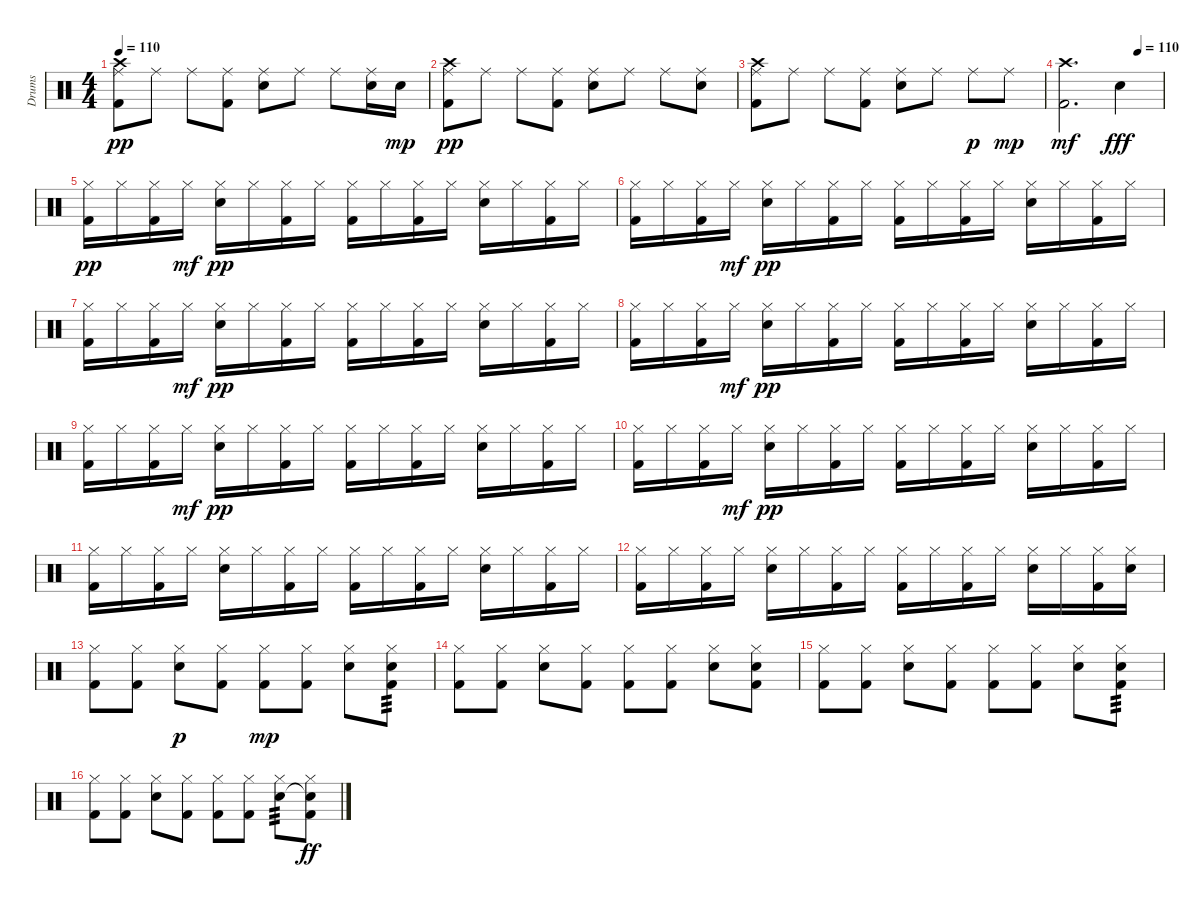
\track ("Drums" "Drums") {instrument percussion}
\staff {score}
\articulation defaults
\ts (4 4)
\tempo 110
\clef neutral
\ks c
("Kick (hit) 2" "Crash high (hit)" "Ride (middle)").8{dy pp} "Ride (middle)".8 "Ride (middle)".8 ("Kick (hit) 2" "Ride (middle)").8 ("Snare (hit) 2" "Ride (middle)").8 "Ride (middle)".8 "Ride (middle)".8 ("Snare (hit) 2" "Ride (middle)").16 "Snare (hit) 2".16{dy mp} |
("Kick (hit) 2" "Crash high (hit)" "Ride (middle)").8{dy pp} "Ride (middle)".8 "Ride (middle)".8 ("Kick (hit) 2" "Ride (middle)").8 ("Snare (hit) 2" "Ride (middle)").8 "Ride (middle)".8 "Ride (middle)".8 ("Snare (hit) 2" "Ride (middle)").8 |
("Kick (hit) 2" "Crash high (hit)" "Ride (middle)").8 "Ride (middle)".8 "Ride (middle)".8 ("Kick (hit) 2" "Ride (middle)").8 ("Snare (hit) 2" "Ride (middle)").8 "Ride (middle)".8 "Ride (middle)".8{dy p} "Ride (middle)".8{dy mp} |
\tempo (110 0.75)
("Kick (hit) 2" "Crash high (hit)").2{d dy mf} "Snare (hit) 2".4{dy fff} |
("Kick (hit) 2" "Hi-Hat (closed)").16{dy pp} "Hi-Hat (closed)".16 ("Kick (hit) 2" "Hi-Hat (closed)").16 "Hi-Hat (closed)".16{dy mf} ("Electric Snare (hit)" "Hi-Hat (closed)").16{dy pp} "Hi-Hat (closed)".16 ("Kick (hit) 2" "Hi-Hat (closed)").16 "Hi-Hat (closed)".16 ("Kick (hit) 2" "Hi-Hat (closed)").16 "Hi-Hat (closed)".16 ("Kick (hit) 2" "Hi-Hat (closed)").16 "Hi-Hat (closed)".16 ("Electric Snare (hit)" "Hi-Hat (closed)").16 "Hi-Hat (closed)".16 ("Kick (hit) 2" "Hi-Hat (closed)").16 "Hi-Hat (closed)".16 |
("Kick (hit) 2" "Hi-Hat (closed)").16 "Hi-Hat (closed)".16 ("Kick (hit) 2" "Hi-Hat (closed)").16 "Hi-Hat (closed)".16{dy mf} ("Electric Snare (hit)" "Hi-Hat (closed)").16{dy pp} "Hi-Hat (closed)".16 ("Kick (hit) 2" "Hi-Hat (closed)").16 "Hi-Hat (closed)".16 ("Kick (hit) 2" "Hi-Hat (closed)").16 "Hi-Hat (closed)".16 ("Kick (hit) 2" "Hi-Hat (closed)").16 "Hi-Hat (closed)".16 ("Electric Snare (hit)" "Hi-Hat (closed)").16 "Hi-Hat (closed)".16 ("Kick (hit) 2" "Hi-Hat (closed)").16 "Hi-Hat (closed)".16 |
("Kick (hit) 2" "Hi-Hat (closed)").16 "Hi-Hat (closed)".16 ("Kick (hit) 2" "Hi-Hat (closed)").16 "Hi-Hat (closed)".16{dy mf} ("Electric Snare (hit)" "Hi-Hat (closed)").16{dy pp} "Hi-Hat (closed)".16 ("Kick (hit) 2" "Hi-Hat (closed)").16 "Hi-Hat (closed)".16 ("Kick (hit) 2" "Hi-Hat (closed)").16 "Hi-Hat (closed)".16 ("Kick (hit) 2" "Hi-Hat (closed)").16 "Hi-Hat (closed)".16 ("Electric Snare (hit)" "Hi-Hat (closed)").16 "Hi-Hat (closed)".16 ("Kick (hit) 2" "Hi-Hat (closed)").16 "Hi-Hat (closed)".16 |
("Kick (hit) 2" "Hi-Hat (closed)").16 "Hi-Hat (closed)".16 ("Kick (hit) 2" "Hi-Hat (closed)").16 "Hi-Hat (closed)".16{dy mf} ("Electric Snare (hit)" "Hi-Hat (closed)").16{dy pp} "Hi-Hat (closed)".16 ("Kick (hit) 2" "Hi-Hat (closed)").16 "Hi-Hat (closed)".16 ("Kick (hit) 2" "Hi-Hat (closed)").16 "Hi-Hat (closed)".16 ("Kick (hit) 2" "Hi-Hat (closed)").16 "Hi-Hat (closed)".16 ("Electric Snare (hit)" "Hi-Hat (closed)").16 "Hi-Hat (closed)".16 ("Kick (hit) 2" "Hi-Hat (closed)").16 "Hi-Hat (closed)".16 |
("Kick (hit) 2" "Hi-Hat (closed)").16 "Hi-Hat (closed)".16 ("Kick (hit) 2" "Hi-Hat (closed)").16 "Hi-Hat (closed)".16{dy mf} ("Electric Snare (hit)" "Hi-Hat (closed)").16{dy pp} "Hi-Hat (closed)".16 ("Kick (hit) 2" "Hi-Hat (closed)").16 "Hi-Hat (closed)".16 ("Kick (hit) 2" "Hi-Hat (closed)").16 "Hi-Hat (closed)".16 ("Kick (hit) 2" "Hi-Hat (closed)").16 "Hi-Hat (closed)".16 ("Electric Snare (hit)" "Hi-Hat (closed)").16 "Hi-Hat (closed)".16 ("Kick (hit) 2" "Hi-Hat (closed)").16 "Hi-Hat (closed)".16 |
("Kick (hit) 2" "Hi-Hat (closed)").16 "Hi-Hat (closed)".16 ("Kick (hit) 2" "Hi-Hat (closed)").16 "Hi-Hat (closed)".16{dy mf} ("Electric Snare (hit)" "Hi-Hat (closed)").16{dy pp} "Hi-Hat (closed)".16 ("Kick (hit) 2" "Hi-Hat (closed)").16 "Hi-Hat (closed)".16 ("Kick (hit) 2" "Hi-Hat (closed)").16 "Hi-Hat (closed)".16 ("Kick (hit) 2" "Hi-Hat (closed)").16 "Hi-Hat (closed)".16 ("Electric Snare (hit)" "Hi-Hat (closed)").16 "Hi-Hat (closed)".16 ("Kick (hit) 2" "Hi-Hat (closed)").16 "Hi-Hat (closed)".16 |
("Kick (hit) 2" "Hi-Hat (closed)").16 "Hi-Hat (closed)".16 ("Kick (hit) 2" "Hi-Hat (closed)").16 "Hi-Hat (closed)".16 ("Electric Snare (hit)" "Hi-Hat (closed)").16 "Hi-Hat (closed)".16 ("Kick (hit) 2" "Hi-Hat (closed)").16 "Hi-Hat (closed)".16 ("Kick (hit) 2" "Hi-Hat (closed)").16 "Hi-Hat (closed)".16 ("Kick (hit) 2" "Hi-Hat (closed)").16 "Hi-Hat (closed)".16 ("Electric Snare (hit)" "Hi-Hat (closed)").16 "Hi-Hat (closed)".16 ("Kick (hit) 2" "Hi-Hat (closed)").16 "Hi-Hat (closed)".16 |
("Kick (hit) 2" "Hi-Hat (closed)").16 "Hi-Hat (closed)".16 ("Kick (hit) 2" "Hi-Hat (closed)").16 "Hi-Hat (closed)".16 ("Electric Snare (hit)" "Hi-Hat (closed)").16 "Hi-Hat (closed)".16 ("Kick (hit) 2" "Hi-Hat (closed)").16 "Hi-Hat (closed)".16 ("Kick (hit) 2" "Hi-Hat (closed)").16 "Hi-Hat (closed)".16 ("Kick (hit) 2" "Hi-Hat (closed)").16 "Hi-Hat (closed)".16 ("Electric Snare (hit)" "Hi-Hat (closed)").16 "Hi-Hat (closed)".16 ("Kick (hit) 2" "Hi-Hat (closed)").16 ("Electric Snare (hit)" "Hi-Hat (closed)").16 |
("Kick (hit) 2" "Hi-Hat (closed)").8 ("Kick (hit) 2" "Hi-Hat (closed)").8 ("Electric Snare (hit)" "Hi-Hat (closed)").8{dy p} ("Kick (hit) 2" "Hi-Hat (closed)").8 ("Kick (hit) 2" "Hi-Hat (closed)").8{dy mp} ("Kick (hit) 2" "Hi-Hat (closed)").8 ("Electric Snare (hit)" "Hi-Hat (closed)").8 ("Kick (hit) 2" "Electric Snare (hit)" "Hi-Hat (closed)").8{tp 3} |
("Kick (hit) 2" "Hi-Hat (closed)").8 ("Kick (hit) 2" "Hi-Hat (closed)").8 ("Electric Snare (hit)" "Hi-Hat (closed)").8 ("Kick (hit) 2" "Hi-Hat (closed)").8 ("Kick (hit) 2" "Hi-Hat (closed)").8 ("Kick (hit) 2" "Hi-Hat (closed)").8 ("Electric Snare (hit)" "Hi-Hat (closed)").8 ("Kick (hit) 2" "Electric Snare (hit)" "Hi-Hat (closed)").8 |
("Kick (hit) 2" "Hi-Hat (closed)").8 ("Kick (hit) 2" "Hi-Hat (closed)").8 ("Electric Snare (hit)" "Hi-Hat (closed)").8 ("Kick (hit) 2" "Hi-Hat (closed)").8 ("Kick (hit) 2" "Hi-Hat (closed)").8 ("Kick (hit) 2" "Hi-Hat (closed)").8 ("Electric Snare (hit)" "Hi-Hat (closed)").8 ("Kick (hit) 2" "Electric Snare (hit)" "Hi-Hat (closed)").8{tp 3} |
("Kick (hit) 2" "Hi-Hat (closed)").8 ("Kick (hit) 2" "Hi-Hat (closed)").8 ("Electric Snare (hit)" "Hi-Hat (closed)").8 ("Kick (hit) 2" "Hi-Hat (closed)").8 ("Kick (hit) 2" "Hi-Hat (closed)").8 ("Kick (hit) 2" "Hi-Hat (closed)").8 ("Electric Snare (hit)" "Hi-Hat (closed)").8{tp 3} ("Electric Snare (hit)"{t} "Hi-Hat (closed)" "Kick (hit) 2").8{dy ff}
